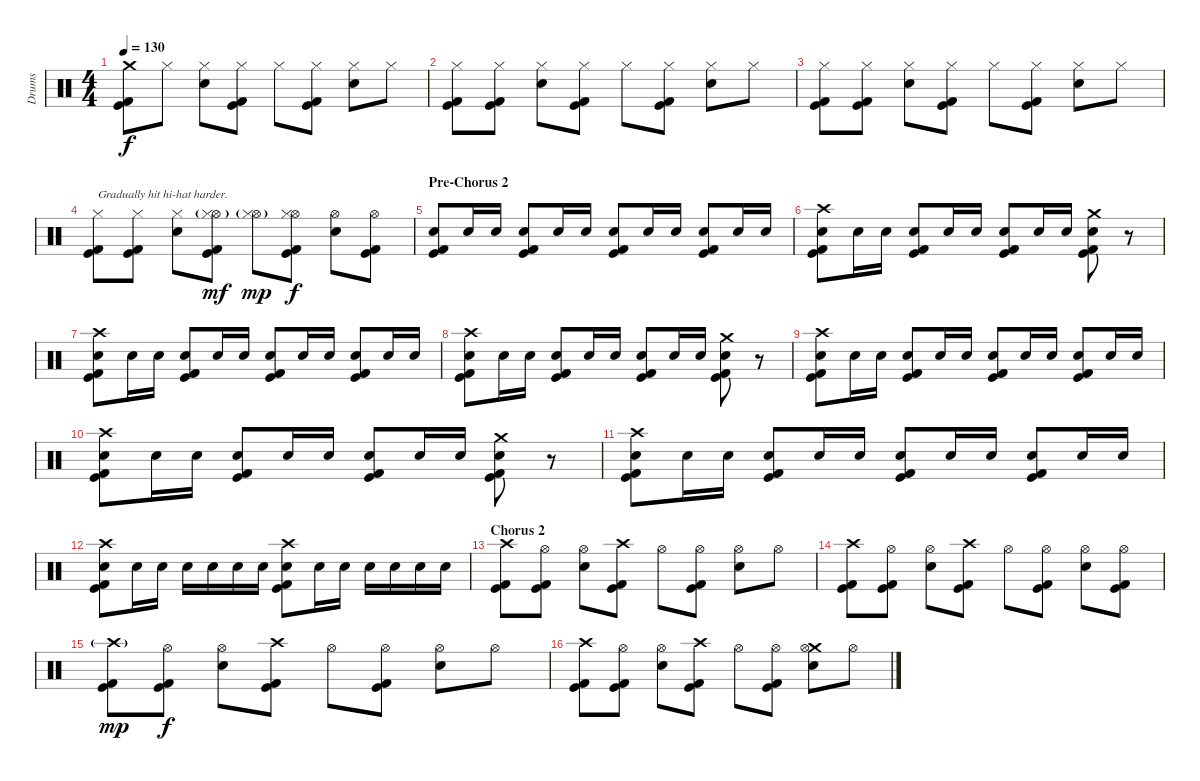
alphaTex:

\track ("Drums" "Drums") {instrument percussion}
\staff {score}
\articulation defaults
\ts (4 4)
\tempo 130
\clef neutral
\ks c
("Crash medium (hit)" "Kick (hit) 2" "Kick (hit)").8{dy f} "Hi-Hat (closed)".8 ("Hi-Hat (closed)" "Electric Snare (hit)").8 ("Hi-Hat (closed)" "Kick (hit) 2" "Kick (hit)").8 "Hi-Hat (closed)".8 ("Hi-Hat (closed)" "Kick (hit) 2" "Kick (hit)").8 ("Hi-Hat (closed)" "Electric Snare (hit)").8 "Hi-Hat (closed)".8 |
("Hi-Hat (closed)" "Kick (hit) 2" "Kick (hit)").8 ("Hi-Hat (closed)" "Kick (hit) 2" "Kick (hit)").8 ("Hi-Hat (closed)" "Electric Snare (hit)").8 ("Hi-Hat (closed)" "Kick (hit) 2" "Kick (hit)").8 "Hi-Hat (closed)".8 ("Hi-Hat (closed)" "Kick (hit) 2" "Kick (hit)").8 ("Hi-Hat (closed)" "Electric Snare (hit)").8 "Hi-Hat (closed)".8 |
("Hi-Hat (closed)" "Kick (hit) 2" "Kick (hit)").8 ("Hi-Hat (closed)" "Kick (hit) 2" "Kick (hit)").8 ("Hi-Hat (closed)" "Electric Snare (hit)").8 ("Hi-Hat (closed)" "Kick (hit) 2" "Kick (hit)").8 "Hi-Hat (closed)".8 ("Hi-Hat (closed)" "Kick (hit) 2" "Kick (hit)").8 ("Hi-Hat (closed)" "Electric Snare (hit)").8 "Hi-Hat (closed)".8 |
("Hi-Hat (closed)" "Kick (hit) 2" "Kick (hit)").8{txt "Gradually hit hi-hat harder."} ("Hi-Hat (closed)" "Kick (hit) 2" "Kick (hit)").8 ("Hi-Hat (closed)" "Electric Snare (hit)").8 ("Hi-Hat (open)"{g} "Hi-Hat (closed)"{g} "Kick (hit) 2" "Kick (hit)").8{dy mf} ("Hi-Hat (open)"{g} "Hi-Hat (closed)"{g}).8{dy mp} ("Hi-Hat (open)" "Hi-Hat (closed)" "Kick (hit) 2" "Kick (hit)").8{dy f} ("Hi-Hat (open)" "Electric Snare (hit)").8 ("Hi-Hat (open)" "Kick (hit) 2" "Kick (hit)").8 |
\section ("" "Pre-Chorus 2")
("Electric Snare (hit)" "Kick (hit) 2" "Kick (hit)").8 "Electric Snare (hit)".16 "Electric Snare (hit)".16 ("Electric Snare (hit)" "Kick (hit) 2" "Kick (hit)").8 "Electric Snare (hit)".16 "Electric Snare (hit)".16 ("Electric Snare (hit)" "Kick (hit) 2" "Kick (hit)").8 "Electric Snare (hit)".16 "Electric Snare (hit)".16 ("Electric Snare (hit)" "Kick (hit) 2" "Kick (hit)").8 "Electric Snare (hit)".16 "Electric Snare (hit)".16 |
("Crash high (hit)" "Electric Snare (hit)" "Kick (hit) 2" "Kick (hit)").8 "Electric Snare (hit)".16 "Electric Snare (hit)".16 ("Electric Snare (hit)" "Kick (hit) 2" "Kick (hit)").8 "Electric Snare (hit)".16 "Electric Snare (hit)".16 ("Electric Snare (hit)" "Kick (hit) 2" "Kick (hit)").8 "Electric Snare (hit)".16 "Electric Snare (hit)".16 ("Crash medium (hit)" "Electric Snare (hit)" "Kick (hit) 2" "Kick (hit)").8 r.8 |
("Crash high (hit)" "Electric Snare (hit)" "Kick (hit) 2" "Kick (hit)").8 "Electric Snare (hit)".16 "Electric Snare (hit)".16 ("Electric Snare (hit)" "Kick (hit) 2" "Kick (hit)").8 "Electric Snare (hit)".16 "Electric Snare (hit)".16 ("Electric Snare (hit)" "Kick (hit) 2" "Kick (hit)").8 "Electric Snare (hit)".16 "Electric Snare (hit)".16 ("Electric Snare (hit)" "Kick (hit) 2" "Kick (hit)").8 "Electric Snare (hit)".16 "Electric Snare (hit)".16 |
("Crash high (hit)" "Electric Snare (hit)" "Kick (hit) 2" "Kick (hit)").8 "Electric Snare (hit)".16 "Electric Snare (hit)".16 ("Electric Snare (hit)" "Kick (hit) 2" "Kick (hit)").8 "Electric Snare (hit)".16 "Electric Snare (hit)".16 ("Electric Snare (hit)" "Kick (hit) 2" "Kick (hit)").8 "Electric Snare (hit)".16 "Electric Snare (hit)".16 ("Crash medium (hit)" "Electric Snare (hit)" "Kick (hit) 2" "Kick (hit)").8 r.8 |
("Crash high (hit)" "Electric Snare (hit)" "Kick (hit) 2" "Kick (hit)").8 "Electric Snare (hit)".16 "Electric Snare (hit)".16 ("Electric Snare (hit)" "Kick (hit) 2" "Kick (hit)").8 "Electric Snare (hit)".16 "Electric Snare (hit)".16 ("Electric Snare (hit)" "Kick (hit) 2" "Kick (hit)").8 "Electric Snare (hit)".16 "Electric Snare (hit)".16 ("Electric Snare (hit)" "Kick (hit) 2" "Kick (hit)").8 "Electric Snare (hit)".16 "Electric Snare (hit)".16 |
("Crash high (hit)" "Electric Snare (hit)" "Kick (hit) 2" "Kick (hit)").8 "Electric Snare (hit)".16 "Electric Snare (hit)".16 ("Electric Snare (hit)" "Kick (hit) 2" "Kick (hit)").8 "Electric Snare (hit)".16 "Electric Snare (hit)".16 ("Electric Snare (hit)" "Kick (hit) 2" "Kick (hit)").8 "Electric Snare (hit)".16 "Electric Snare (hit)".16 ("Crash medium (hit)" "Electric Snare (hit)" "Kick (hit) 2" "Kick (hit)").8 r.8 |
("Crash high (hit)" "Electric Snare (hit)" "Kick (hit) 2" "Kick (hit)").8 "Electric Snare (hit)".16 "Electric Snare (hit)".16 ("Electric Snare (hit)" "Kick (hit) 2" "Kick (hit)").8 "Electric Snare (hit)".16 "Electric Snare (hit)".16 ("Electric Snare (hit)" "Kick (hit) 2" "Kick (hit)").8 "Electric Snare (hit)".16 "Electric Snare (hit)".16 ("Electric Snare (hit)" "Kick (hit) 2" "Kick (hit)").8 "Electric Snare (hit)".16 "Electric Snare (hit)".16 |
("Crash high (hit)" "Electric Snare (hit)" "Kick (hit) 2" "Kick (hit)").8 "Electric Snare (hit)".16 "Electric Snare (hit)".16 "Electric Snare (hit)".16 "Electric Snare (hit)".16 "Electric Snare (hit)".16 "Electric Snare (hit)".16 ("Crash high (hit)" "Electric Snare (hit)" "Kick (hit) 2" "Kick (hit)").8 "Electric Snare (hit)".16 "Electric Snare (hit)".16 "Electric Snare (hit)".16 "Electric Snare (hit)".16 "Electric Snare (hit)".16 "Electric Snare (hit)".16 |
\section ("" "Chorus 2")
("Crash high (hit)" "Kick (hit) 2" "Kick (hit)").8 ("Hi-Hat (open)" "Kick (hit) 2" "Kick (hit)").8 ("Hi-Hat (open)" "Electric Snare (hit)").8 ("Crash high (hit)" "Kick (hit) 2" "Kick (hit)").8 "Hi-Hat (open)".8 ("Hi-Hat (open)" "Kick (hit) 2" "Kick (hit)").8 ("Hi-Hat (open)" "Electric Snare (hit)").8 "Hi-Hat (open)".8 |
("Crash high (hit)" "Kick (hit) 2" "Kick (hit)").8 ("Hi-Hat (open)" "Kick (hit) 2" "Kick (hit)").8 ("Hi-Hat (open)" "Electric Snare (hit)").8 ("Crash high (hit)" "Kick (hit) 2" "Kick (hit)").8 "Hi-Hat (open)".8 ("Hi-Hat (open)" "Kick (hit) 2" "Kick (hit)").8 ("Hi-Hat (open)" "Electric Snare (hit)").8 ("Hi-Hat (open)" "Kick (hit) 2" "Kick (hit)").8 |
("Crash high (hit)"{g} "Kick (hit) 2" "Kick (hit)").8{dy mp} ("Hi-Hat (open)" "Kick (hit) 2" "Kick (hit)").8{dy f} ("Hi-Hat (open)" "Electric Snare (hit)").8 ("Crash high (hit)" "Kick (hit) 2" "Kick (hit)").8 "Hi-Hat (open)".8 ("Hi-Hat (open)" "Kick (hit) 2" "Kick (hit)").8 ("Hi-Hat (open)" "Electric Snare (hit)").8 "Hi-Hat (open)".8 |
("Crash high (hit)" "Kick (hit) 2" "Kick (hit)").8 ("Hi-Hat (open)" "Kick (hit) 2" "Kick (hit)").8 ("Hi-Hat (open)" "Electric Snare (hit)").8 ("Crash high (hit)" "Kick (hit) 2" "Kick (hit)").8 "Hi-Hat (open)".8 ("Hi-Hat (open)" "Kick (hit) 2" "Kick (hit)").8 ("Crash medium (hit)" "Hi-Hat (open)" "Electric Snare (hit)").8 "Hi-Hat (open)".8
